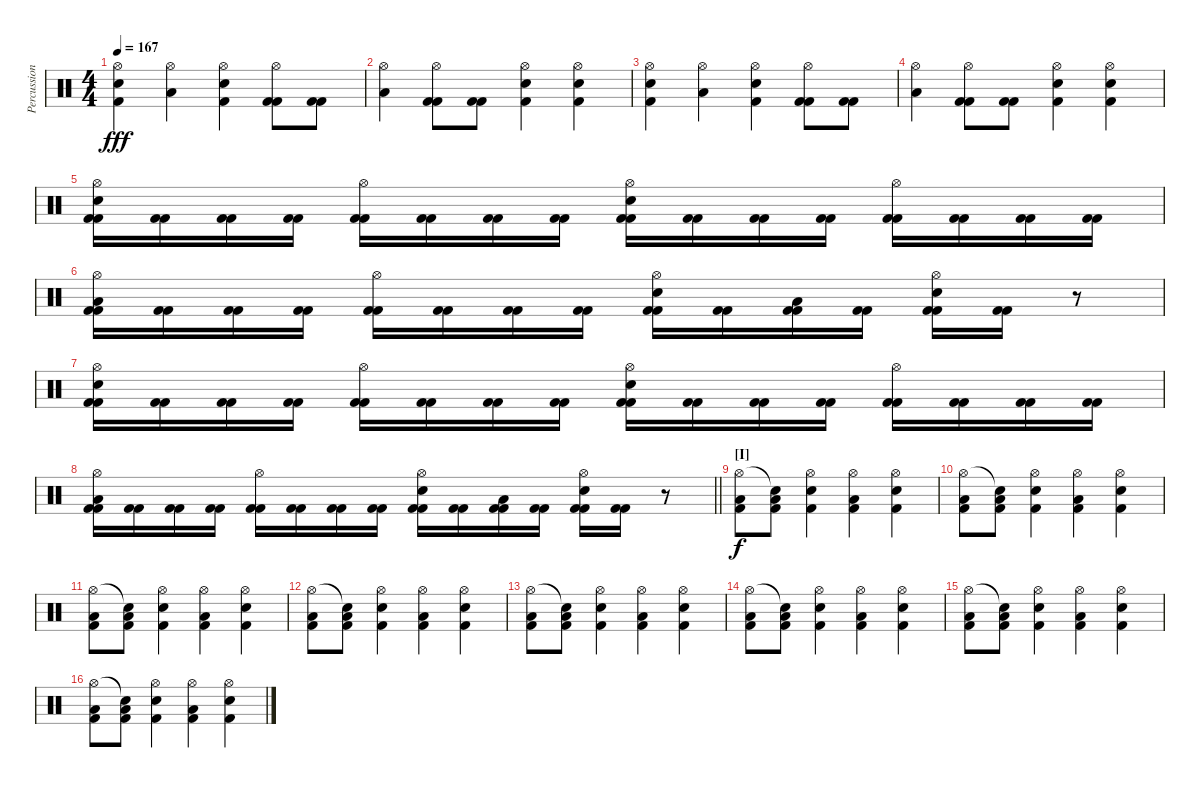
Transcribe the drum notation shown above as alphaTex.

\track ("Percussions" "Percussion") {instrument percussion}
\staff {score}
\articulation defaults
\ts (4 4)
\tempo 167
\clef neutral
\ks c
("Hi-Hat (open)" "Electric Snare (hit)" "Kick (hit) 2").4{dy fff} ("Hi-Hat (open)" "Low Floor Tom (hit)").4 ("Hi-Hat (open)" "Electric Snare (hit)" "Kick (hit) 2").4 ("Hi-Hat (open)" "Kick (hit) 2" "Kick (hit) 2").8 ("Kick (hit) 2" "Kick (hit) 2").8 |
("Hi-Hat (open)" "Low Floor Tom (hit)").4 ("Hi-Hat (open)" "Kick (hit) 2" "Kick (hit) 2").8 ("Kick (hit) 2" "Kick (hit) 2").8 ("Hi-Hat (open)" "Electric Snare (hit)" "Kick (hit) 2").4 ("Hi-Hat (open)" "Electric Snare (hit)" "Kick (hit) 2").4 |
("Hi-Hat (open)" "Electric Snare (hit)" "Kick (hit) 2").4 ("Hi-Hat (open)" "Low Floor Tom (hit)").4 ("Hi-Hat (open)" "Electric Snare (hit)" "Kick (hit) 2").4 ("Hi-Hat (open)" "Kick (hit) 2" "Kick (hit) 2").8 ("Kick (hit) 2" "Kick (hit) 2").8 |
("Hi-Hat (open)" "Low Floor Tom (hit)").4 ("Hi-Hat (open)" "Kick (hit) 2" "Kick (hit) 2").8 ("Kick (hit) 2" "Kick (hit) 2").8 ("Hi-Hat (open)" "Electric Snare (hit)" "Kick (hit) 2").4 ("Hi-Hat (open)" "Electric Snare (hit)" "Kick (hit) 2").4 |
("Hi-Hat (open)" "Electric Snare (hit)" "Kick (hit) 2" "Kick (hit) 2").16 ("Kick (hit) 2" "Kick (hit) 2").16 ("Kick (hit) 2" "Kick (hit) 2").16 ("Kick (hit) 2" "Kick (hit) 2").16 ("Hi-Hat (open)" "Kick (hit) 2" "Kick (hit) 2").16 ("Kick (hit) 2" "Kick (hit) 2").16 ("Kick (hit) 2" "Kick (hit) 2").16 ("Kick (hit) 2" "Kick (hit) 2").16 ("Hi-Hat (open)" "Electric Snare (hit)" "Kick (hit) 2" "Kick (hit) 2").16 ("Kick (hit) 2" "Kick (hit) 2").16 ("Kick (hit) 2" "Kick (hit) 2").16 ("Kick (hit) 2" "Kick (hit) 2").16 ("Hi-Hat (open)" "Kick (hit) 2" "Kick (hit) 2").16 ("Kick (hit) 2" "Kick (hit) 2").16 ("Kick (hit) 2" "Kick (hit) 2").16 ("Kick (hit) 2" "Kick (hit) 2").16 |
("Hi-Hat (open)" "Low Floor Tom (hit)" "Kick (hit) 2" "Kick (hit) 2").16 ("Kick (hit) 2" "Kick (hit) 2").16 ("Kick (hit) 2" "Kick (hit) 2").16 ("Kick (hit) 2" "Kick (hit) 2").16 ("Hi-Hat (open)" "Kick (hit) 2" "Kick (hit) 2").16 ("Kick (hit) 2" "Kick (hit) 2").16 ("Kick (hit) 2" "Kick (hit) 2").16 ("Kick (hit) 2" "Kick (hit) 2").16 ("Hi-Hat (open)" "Electric Snare (hit)" "Kick (hit) 2" "Kick (hit) 2").16 ("Kick (hit) 2" "Kick (hit) 2").16 ("Low Floor Tom (hit)" "Kick (hit) 2" "Kick (hit) 2").16 ("Kick (hit) 2" "Kick (hit) 2").16 ("Hi-Hat (open)" "Electric Snare (hit)" "Kick (hit) 2" "Kick (hit) 2").16 ("Kick (hit) 2" "Kick (hit) 2").16 r.8 |
("Hi-Hat (open)" "Electric Snare (hit)" "Kick (hit) 2" "Kick (hit) 2").16 ("Kick (hit) 2" "Kick (hit) 2").16 ("Kick (hit) 2" "Kick (hit) 2").16 ("Kick (hit) 2" "Kick (hit) 2").16 ("Hi-Hat (open)" "Kick (hit) 2" "Kick (hit) 2").16 ("Kick (hit) 2" "Kick (hit) 2").16 ("Kick (hit) 2" "Kick (hit) 2").16 ("Kick (hit) 2" "Kick (hit) 2").16 ("Hi-Hat (open)" "Electric Snare (hit)" "Kick (hit) 2" "Kick (hit) 2").16 ("Kick (hit) 2" "Kick (hit) 2").16 ("Kick (hit) 2" "Kick (hit) 2").16 ("Kick (hit) 2" "Kick (hit) 2").16 ("Hi-Hat (open)" "Kick (hit) 2" "Kick (hit) 2").16 ("Kick (hit) 2" "Kick (hit) 2").16 ("Kick (hit) 2" "Kick (hit) 2").16 ("Kick (hit) 2" "Kick (hit) 2").16 |
\barLineRight lightlight
("Hi-Hat (open)" "Low Floor Tom (hit)" "Kick (hit) 2" "Kick (hit) 2").16 ("Kick (hit) 2" "Kick (hit) 2").16 ("Kick (hit) 2" "Kick (hit) 2").16 ("Kick (hit) 2" "Kick (hit) 2").16 ("Hi-Hat (open)" "Kick (hit) 2" "Kick (hit) 2").16 ("Kick (hit) 2" "Kick (hit) 2").16 ("Kick (hit) 2" "Kick (hit) 2").16 ("Kick (hit) 2" "Kick (hit) 2").16 ("Hi-Hat (open)" "Electric Snare (hit)" "Kick (hit) 2" "Kick (hit) 2").16 ("Kick (hit) 2" "Kick (hit) 2").16 ("Low Floor Tom (hit)" "Kick (hit) 2" "Kick (hit) 2").16 ("Kick (hit) 2" "Kick (hit) 2").16 ("Hi-Hat (open)" "Electric Snare (hit)" "Kick (hit) 2" "Kick (hit) 2").16 ("Kick (hit) 2" "Kick (hit) 2").16 r.8 |
\section ("" "[I]")
("Hi-Hat (open)" "Low Floor Tom (hit)" "Kick (hit) 2").8{dy f} ("Snare (hit)"{t} "Low Floor Tom (hit)" "Kick (hit) 2").8 ("Hi-Hat (open)" "Electric Snare (hit)" "Kick (hit) 2").4 ("Hi-Hat (open)" "Low Floor Tom (hit)" "Kick (hit) 2").4 ("Hi-Hat (open)" "Electric Snare (hit)" "Kick (hit) 2").4 |
("Hi-Hat (open)" "Low Floor Tom (hit)" "Kick (hit) 2").8 ("Snare (hit)"{t} "Low Floor Tom (hit)" "Kick (hit) 2").8 ("Hi-Hat (open)" "Electric Snare (hit)" "Kick (hit) 2").4 ("Hi-Hat (open)" "Low Floor Tom (hit)" "Kick (hit) 2").4 ("Hi-Hat (open)" "Electric Snare (hit)" "Kick (hit) 2").4 |
("Hi-Hat (open)" "Low Floor Tom (hit)" "Kick (hit) 2").8 ("Snare (hit)"{t} "Low Floor Tom (hit)" "Kick (hit) 2").8 ("Hi-Hat (open)" "Electric Snare (hit)" "Kick (hit) 2").4 ("Hi-Hat (open)" "Low Floor Tom (hit)" "Kick (hit) 2").4 ("Hi-Hat (open)" "Electric Snare (hit)" "Kick (hit) 2").4 |
("Hi-Hat (open)" "Low Floor Tom (hit)" "Kick (hit) 2").8 ("Snare (hit)"{t} "Low Floor Tom (hit)" "Kick (hit) 2").8 ("Hi-Hat (open)" "Electric Snare (hit)" "Kick (hit) 2").4 ("Hi-Hat (open)" "Low Floor Tom (hit)" "Kick (hit) 2").4 ("Hi-Hat (open)" "Electric Snare (hit)" "Kick (hit) 2").4 |
("Hi-Hat (open)" "Low Floor Tom (hit)" "Kick (hit) 2").8 ("Snare (hit)"{t} "Low Floor Tom (hit)" "Kick (hit) 2").8 ("Hi-Hat (open)" "Electric Snare (hit)" "Kick (hit) 2").4 ("Hi-Hat (open)" "Low Floor Tom (hit)" "Kick (hit) 2").4 ("Hi-Hat (open)" "Electric Snare (hit)" "Kick (hit) 2").4 |
("Hi-Hat (open)" "Low Floor Tom (hit)" "Kick (hit) 2").8 ("Snare (hit)"{t} "Low Floor Tom (hit)" "Kick (hit) 2").8 ("Hi-Hat (open)" "Electric Snare (hit)" "Kick (hit) 2").4 ("Hi-Hat (open)" "Low Floor Tom (hit)" "Kick (hit) 2").4 ("Hi-Hat (open)" "Electric Snare (hit)" "Kick (hit) 2").4 |
("Hi-Hat (open)" "Low Floor Tom (hit)" "Kick (hit) 2").8 ("Snare (hit)"{t} "Low Floor Tom (hit)" "Kick (hit) 2").8 ("Hi-Hat (open)" "Electric Snare (hit)" "Kick (hit) 2").4 ("Hi-Hat (open)" "Low Floor Tom (hit)" "Kick (hit) 2").4 ("Hi-Hat (open)" "Electric Snare (hit)" "Kick (hit) 2").4 |
("Hi-Hat (open)" "Low Floor Tom (hit)" "Kick (hit) 2").8 ("Snare (hit)"{t} "Low Floor Tom (hit)" "Kick (hit) 2").8 ("Hi-Hat (open)" "Electric Snare (hit)" "Kick (hit) 2").4 ("Hi-Hat (open)" "Low Floor Tom (hit)" "Kick (hit) 2").4 ("Hi-Hat (open)" "Electric Snare (hit)" "Kick (hit) 2").4
